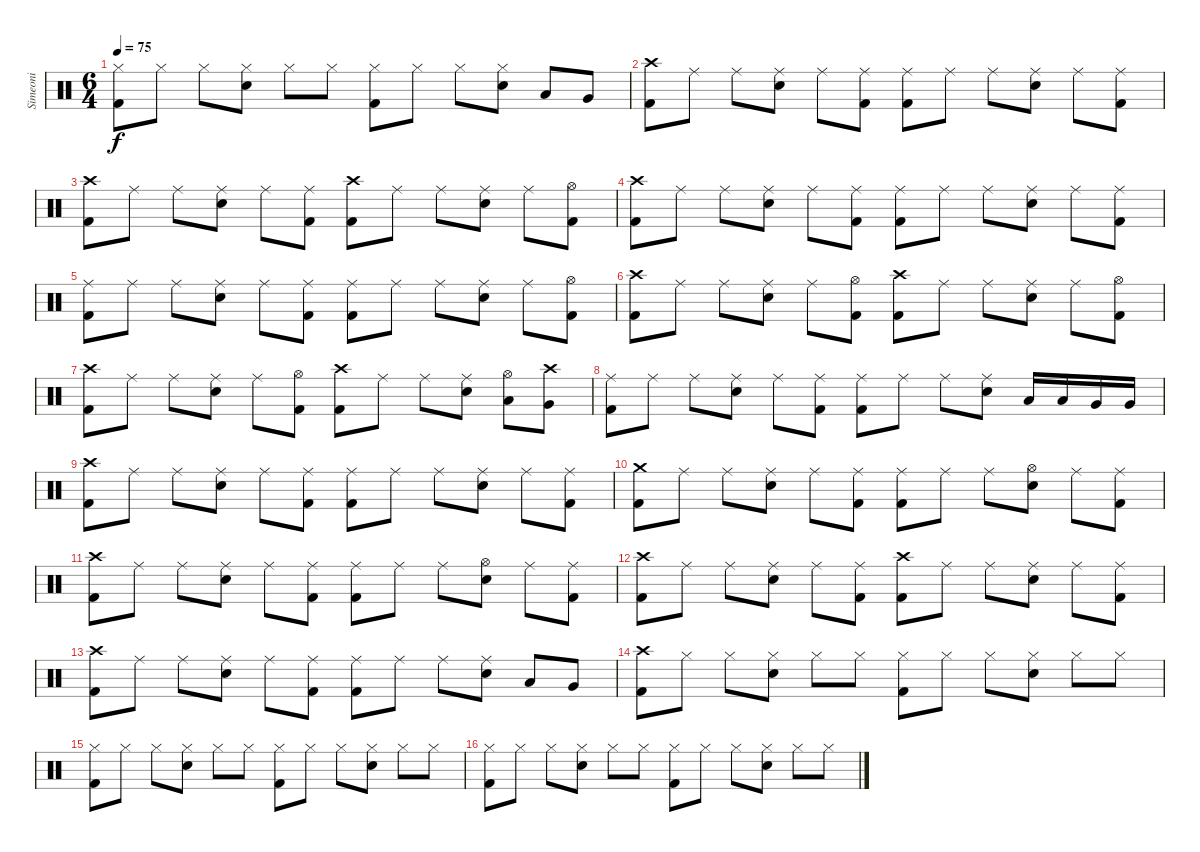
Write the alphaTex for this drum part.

\track ("Simeoni" "Simeoni") {instrument percussion}
\staff {score}
\articulation defaults
\ts (6 4)
\tempo 75
\clef neutral
\ks c
("Hi-Hat (closed)" "Kick (hit) 2").8{dy f} "Hi-Hat (closed)".8 "Hi-Hat (closed)".8 ("Hi-Hat (closed)" "Electric Snare (hit)").8 "Hi-Hat (closed)".8 "Hi-Hat (closed)".8 ("Hi-Hat (closed)" "Kick (hit) 2").8 "Hi-Hat (closed)".8 "Hi-Hat (closed)".8 ("Hi-Hat (closed)" "Electric Snare (hit)").8 "Low Tom (hit)".8 "Very Low Tom (hit)".8 |
("Crash high (hit)" "Kick (hit) 2").8 "Ride (middle)".8 "Ride (middle)".8 ("Ride (middle)" "Electric Snare (hit)").8 "Ride (middle)".8 ("Ride (middle)" "Kick (hit) 2").8 ("Ride (middle)" "Kick (hit) 2").8 "Ride (middle)".8 "Ride (middle)".8 ("Ride (middle)" "Electric Snare (hit)").8 "Ride (middle)".8 ("Ride (middle)" "Kick (hit) 2").8 |
("Crash high (hit)" "Kick (hit) 2").8 "Ride (middle)".8 "Ride (middle)".8 ("Ride (middle)" "Electric Snare (hit)").8 "Ride (middle)".8 ("Ride (middle)" "Kick (hit) 2").8 ("Crash high (hit)" "Kick (hit) 2").8 "Ride (middle)".8 "Ride (middle)".8 ("Ride (middle)" "Electric Snare (hit)").8 "Ride (middle)".8 ("Hi-Hat (open)" "Kick (hit) 2").8 |
("Crash high (hit)" "Kick (hit) 2").8 "Ride (middle)".8 "Ride (middle)".8 ("Ride (middle)" "Electric Snare (hit)").8 "Ride (middle)".8 ("Ride (middle)" "Kick (hit) 2").8 ("Ride (middle)" "Kick (hit) 2").8 "Ride (middle)".8 "Ride (middle)".8 ("Ride (middle)" "Electric Snare (hit)").8 "Ride (middle)".8 ("Ride (middle)" "Kick (hit) 2").8 |
("Ride (middle)" "Kick (hit) 2").8 "Ride (middle)".8 "Ride (middle)".8 ("Ride (middle)" "Electric Snare (hit)").8 "Ride (middle)".8 ("Ride (middle)" "Kick (hit) 2").8 ("Ride (middle)" "Kick (hit) 2").8 "Ride (middle)".8 "Ride (middle)".8 ("Ride (middle)" "Electric Snare (hit)").8 "Ride (middle)".8 ("Hi-Hat (open)" "Kick (hit) 2").8 |
("Crash high (hit)" "Kick (hit) 2").8 "Ride (middle)".8 "Ride (middle)".8 ("Ride (middle)" "Electric Snare (hit)").8 "Ride (middle)".8 ("Hi-Hat (open)" "Kick (hit) 2").8 ("Crash high (hit)" "Kick (hit) 2").8 "Ride (middle)".8 "Ride (middle)".8 ("Ride (middle)" "Electric Snare (hit)").8 "Ride (middle)".8 ("Hi-Hat (open)" "Kick (hit) 2").8 |
("Crash high (hit)" "Kick (hit) 2").8 "Ride (middle)".8 "Ride (middle)".8 ("Ride (middle)" "Electric Snare (hit)").8 "Ride (middle)".8 ("Hi-Hat (open)" "Kick (hit) 2").8 ("Crash high (hit)" "Kick (hit) 2").8 "Ride (middle)".8 "Ride (middle)".8 ("Ride (middle)" "Electric Snare (hit)").8 ("Hi-Hat (open)" "Low Tom (hit)").8 ("Crash high (hit)" "Very Low Tom (hit)").8 |
("Ride (middle)" "Kick (hit) 2").8 "Ride (middle)".8 "Ride (middle)".8 ("Ride (middle)" "Electric Snare (hit)").8 "Ride (middle)".8 ("Ride (middle)" "Kick (hit) 2").8 ("Ride (middle)" "Kick (hit) 2").8 "Ride (middle)".8 "Ride (middle)".8 ("Ride (middle)" "Electric Snare (hit)").8 "Low Tom (hit)".16 "Low Tom (hit)".16 "Very Low Tom (hit)".16 "Very Low Tom (hit)".16 |
("Crash high (hit)" "Kick (hit) 2").8 "Ride (middle)".8 "Ride (middle)".8 ("Ride (middle)" "Electric Snare (hit)").8 "Ride (middle)".8 ("Ride (middle)" "Kick (hit) 2").8 ("Ride (middle)" "Kick (hit) 2").8 "Ride (middle)".8 "Ride (middle)".8 ("Ride (middle)" "Electric Snare (hit)").8 "Ride (middle)".8 ("Ride (middle)" "Kick (hit) 2").8 |
("Crash medium (hit)" "Kick (hit) 2").8 "Ride (middle)".8 "Ride (middle)".8 ("Ride (middle)" "Electric Snare (hit)").8 "Ride (middle)".8 ("Ride (middle)" "Kick (hit) 2").8 ("Ride (middle)" "Kick (hit) 2").8 "Ride (middle)".8 "Ride (middle)".8 ("Hi-Hat (open)" "Electric Snare (hit)").8 "Ride (middle)".8 ("Ride (middle)" "Kick (hit) 2").8 |
("Crash high (hit)" "Kick (hit) 2").8 "Ride (middle)".8 "Ride (middle)".8 ("Ride (middle)" "Electric Snare (hit)").8 "Ride (middle)".8 ("Ride (middle)" "Kick (hit) 2").8 ("Ride (middle)" "Kick (hit) 2").8 "Ride (middle)".8 "Ride (middle)".8 ("Hi-Hat (open)" "Electric Snare (hit)").8 "Ride (middle)".8 ("Ride (middle)" "Kick (hit) 2").8 |
("Crash high (hit)" "Kick (hit) 2").8 "Ride (middle)".8 "Ride (middle)".8 ("Ride (middle)" "Electric Snare (hit)").8 "Ride (middle)".8 ("Ride (middle)" "Kick (hit) 2").8 ("Crash high (hit)" "Kick (hit) 2").8 "Ride (middle)".8 "Ride (middle)".8 ("Ride (middle)" "Electric Snare (hit)").8 "Ride (middle)".8 ("Ride (middle)" "Kick (hit) 2").8 |
("Crash high (hit)" "Kick (hit) 2").8 "Ride (middle)".8 "Ride (middle)".8 ("Ride (middle)" "Electric Snare (hit)").8 "Ride (middle)".8 ("Ride (middle)" "Kick (hit) 2").8 ("Ride (middle)" "Kick (hit) 2").8 "Ride (middle)".8 "Ride (middle)".8 ("Ride (middle)" "Electric Snare (hit)").8 "Low Tom (hit)".8 "Very Low Tom (hit)".8 |
("Crash high (hit)" "Kick (hit) 2").8 "Hi-Hat (closed)".8 "Hi-Hat (closed)".8 ("Hi-Hat (closed)" "Electric Snare (hit)").8 "Hi-Hat (closed)".8 "Hi-Hat (closed)".8 ("Hi-Hat (closed)" "Kick (hit) 2").8 "Hi-Hat (closed)".8 "Hi-Hat (closed)".8 ("Hi-Hat (closed)" "Electric Snare (hit)").8 "Hi-Hat (closed)".8 "Hi-Hat (closed)".8 |
("Hi-Hat (closed)" "Kick (hit) 2").8 "Hi-Hat (closed)".8 "Hi-Hat (closed)".8 ("Hi-Hat (closed)" "Electric Snare (hit)").8 "Hi-Hat (closed)".8 "Hi-Hat (closed)".8 ("Hi-Hat (closed)" "Kick (hit) 2").8 "Hi-Hat (closed)".8 "Hi-Hat (closed)".8 ("Hi-Hat (closed)" "Electric Snare (hit)").8 "Hi-Hat (closed)".8 "Hi-Hat (closed)".8 |
("Hi-Hat (closed)" "Kick (hit) 2").8 "Hi-Hat (closed)".8 "Hi-Hat (closed)".8 ("Hi-Hat (closed)" "Electric Snare (hit)").8 "Hi-Hat (closed)".8 "Hi-Hat (closed)".8 ("Hi-Hat (closed)" "Kick (hit) 2").8 "Hi-Hat (closed)".8 "Hi-Hat (closed)".8 ("Hi-Hat (closed)" "Electric Snare (hit)").8 "Hi-Hat (closed)".8 "Hi-Hat (closed)".8
